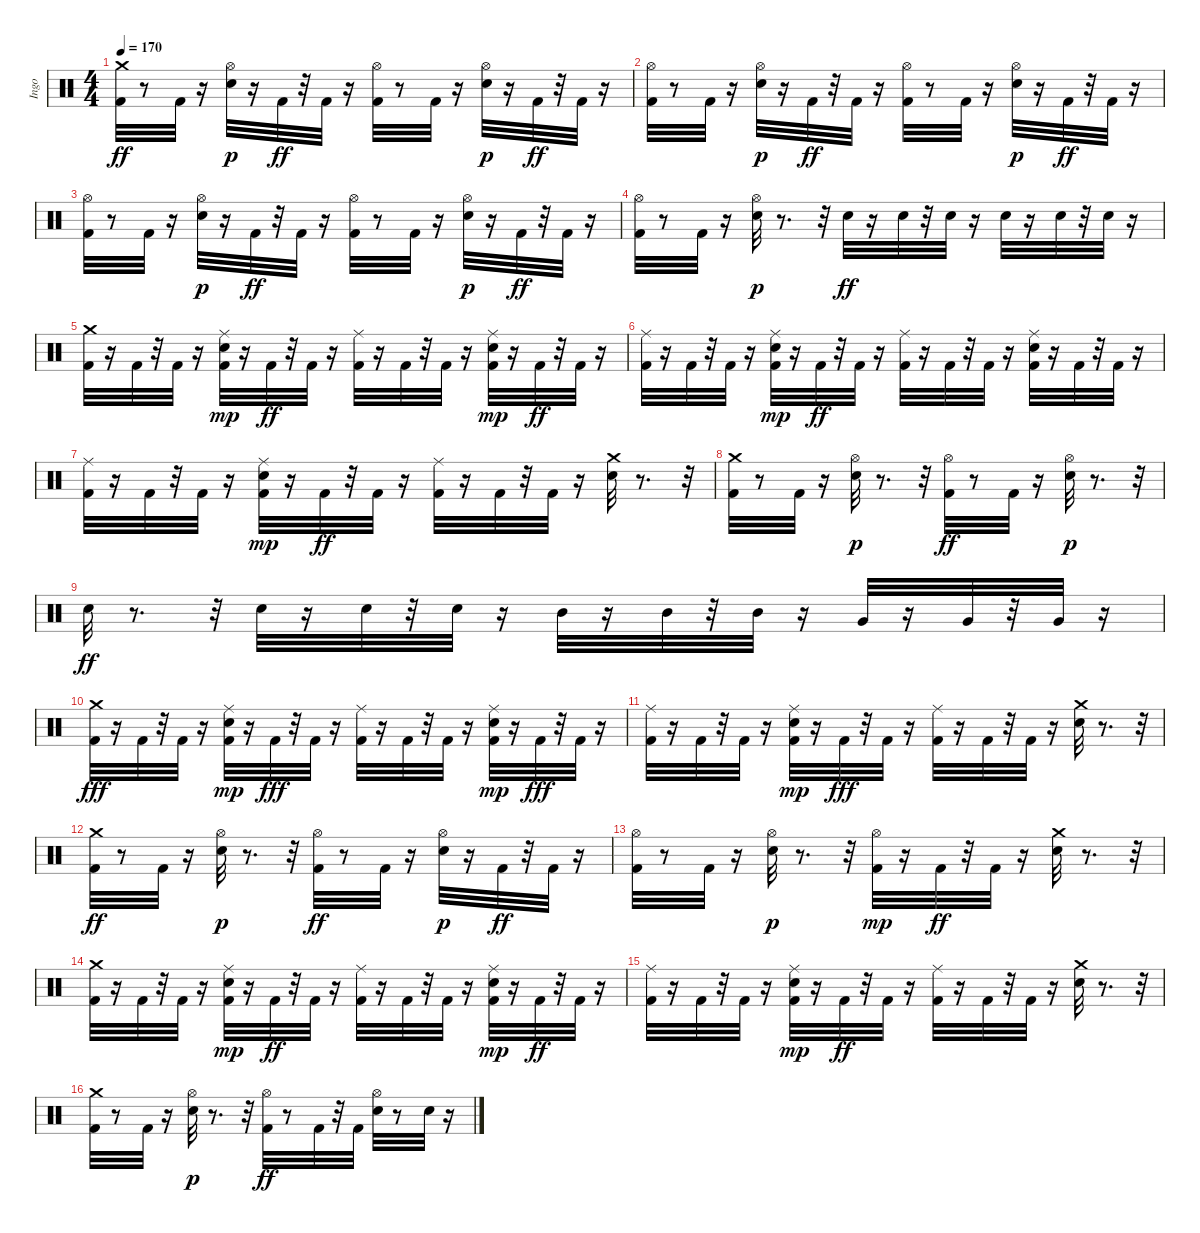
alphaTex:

\track ("Ingo" "Ingo") {instrument percussion}
\staff {score}
\articulation defaults
\ts (4 4)
\tempo 170
\clef neutral
\ks c
("Crash medium (hit)" "Kick (hit) 2").32{dy ff} r.8 "Kick (hit) 2".32 r.16 ("Snare (hit) 2" "Hi-Hat (open)").32{dy p} r.16 "Kick (hit) 2".32{dy ff} r.32 "Kick (hit) 2".32 r.16 ("Hi-Hat (open)" "Kick (hit) 2").32 r.8 "Kick (hit) 2".32 r.16 ("Snare (hit) 2" "Hi-Hat (open)").32{dy p} r.16 "Kick (hit) 2".32{dy ff} r.32 "Kick (hit) 2".32 r.16 |
("Hi-Hat (open)" "Kick (hit) 2").32 r.8 "Kick (hit) 2".32 r.16 ("Snare (hit) 2" "Hi-Hat (open)").32{dy p} r.16 "Kick (hit) 2".32{dy ff} r.32 "Kick (hit) 2".32 r.16 ("Hi-Hat (open)" "Kick (hit) 2").32 r.8 "Kick (hit) 2".32 r.16 ("Snare (hit) 2" "Hi-Hat (open)").32{dy p} r.16 "Kick (hit) 2".32{dy ff} r.32 "Kick (hit) 2".32 r.16 |
("Hi-Hat (open)" "Kick (hit) 2").32 r.8 "Kick (hit) 2".32 r.16 ("Snare (hit) 2" "Hi-Hat (open)").32{dy p} r.16 "Kick (hit) 2".32{dy ff} r.32 "Kick (hit) 2".32 r.16 ("Hi-Hat (open)" "Kick (hit) 2").32 r.8 "Kick (hit) 2".32 r.16 ("Snare (hit) 2" "Hi-Hat (open)").32{dy p} r.16 "Kick (hit) 2".32{dy ff} r.32 "Kick (hit) 2".32 r.16 |
("Hi-Hat (open)" "Kick (hit) 2").32 r.8 "Kick (hit) 2".32 r.16 ("Snare (hit) 2" "Hi-Hat (open)").32{dy p} r.8{d} r.32 "Snare (hit) 2".32{dy ff} r.16 "Snare (hit) 2".32 r.32 "Snare (hit) 2".32 r.16 "Snare (hit) 2".32 r.16 "Snare (hit) 2".32 r.32 "Snare (hit) 2".32 r.16 |
("Crash medium (hit)" "Kick (hit) 2").32 r.16 "Kick (hit) 2".32 r.32 "Kick (hit) 2".32 r.16 ("Kick (hit) 2" "Snare (hit) 2" "Ride (middle)").32{dy mp} r.16 "Kick (hit) 2".32{dy ff} r.32 "Kick (hit) 2".32 r.16 ("Ride (middle)" "Kick (hit) 2").32 r.16 "Kick (hit) 2".32 r.32 "Kick (hit) 2".32 r.16 ("Kick (hit) 2" "Snare (hit) 2" "Ride (middle)").32{dy mp} r.16 "Kick (hit) 2".32{dy ff} r.32 "Kick (hit) 2".32 r.16 |
("Ride (middle)" "Kick (hit) 2").32 r.16 "Kick (hit) 2".32 r.32 "Kick (hit) 2".32 r.16 ("Kick (hit) 2" "Snare (hit) 2" "Ride (middle)").32{dy mp} r.16 "Kick (hit) 2".32{dy ff} r.32 "Kick (hit) 2".32 r.16 ("Ride (middle)" "Kick (hit) 2").32 r.16 "Kick (hit) 2".32 r.32 "Kick (hit) 2".32 r.16 ("Ride (middle)" "Kick (hit) 2" "Snare (hit) 2").32 r.16 "Kick (hit) 2".32 r.32 "Kick (hit) 2".32 r.16 |
("Ride (middle)" "Kick (hit) 2").32 r.16 "Kick (hit) 2".32 r.32 "Kick (hit) 2".32 r.16 ("Kick (hit) 2" "Snare (hit) 2" "Ride (middle)").32{dy mp} r.16 "Kick (hit) 2".32{dy ff} r.32 "Kick (hit) 2".32 r.16 ("Ride (middle)" "Kick (hit) 2").32 r.16 "Kick (hit) 2".32 r.32 "Kick (hit) 2".32 r.16 ("Crash medium (hit)" "Snare (hit) 2").32 r.8{d} r.32 |
("Crash medium (hit)" "Kick (hit) 2").32 r.8 "Kick (hit) 2".32 r.16 ("Snare (hit) 2" "Hi-Hat (open)").32{dy p} r.8{d} r.32 ("Hi-Hat (open)" "Kick (hit) 2").32{dy ff} r.8 "Kick (hit) 2".32 r.16 ("Snare (hit) 2" "Hi-Hat (open)").32{dy p} r.8{d} r.32 |
"Snare (hit) 2".32{dy ff} r.8{d} r.32 "Snare (hit) 2".32 r.16 "Snare (hit) 2".32 r.32 "Snare (hit) 2".32 r.16 "Mid Tom (hit)".32 r.16 "Mid Tom (hit)".32 r.32 "Mid Tom (hit)".32 r.16 "Very Low Tom (hit)".32 r.16 "Very Low Tom (hit)".32 r.32 "Very Low Tom (hit)".32 r.16 |
("Crash medium (hit)" "Kick (hit) 2").32{dy fff} r.16 "Kick (hit) 2".32 r.32 "Kick (hit) 2".32 r.16 ("Kick (hit) 2" "Snare (hit) 2" "Ride (middle)").32{dy mp} r.16 "Kick (hit) 2".32{dy fff} r.32 "Kick (hit) 2".32 r.16 ("Ride (middle)" "Kick (hit) 2").32 r.16 "Kick (hit) 2".32 r.32 "Kick (hit) 2".32 r.16 ("Kick (hit) 2" "Snare (hit) 2" "Ride (middle)").32{dy mp} r.16 "Kick (hit) 2".32{dy fff} r.32 "Kick (hit) 2".32 r.16 |
("Ride (middle)" "Kick (hit) 2").32 r.16 "Kick (hit) 2".32 r.32 "Kick (hit) 2".32 r.16 ("Kick (hit) 2" "Snare (hit) 2" "Ride (middle)").32{dy mp} r.16 "Kick (hit) 2".32{dy fff} r.32 "Kick (hit) 2".32 r.16 ("Ride (middle)" "Kick (hit) 2").32 r.16 "Kick (hit) 2".32 r.32 "Kick (hit) 2".32 r.16 ("Crash medium (hit)" "Snare (hit) 2").32 r.8{d} r.32 |
("Crash medium (hit)" "Kick (hit) 2").32{dy ff} r.8 "Kick (hit) 2".32 r.16 ("Snare (hit) 2" "Hi-Hat (open)").32{dy p} r.8{d} r.32 ("Hi-Hat (open)" "Kick (hit) 2").32{dy ff} r.8 "Kick (hit) 2".32 r.16 ("Snare (hit) 2" "Hi-Hat (open)").32{dy p} r.16 "Kick (hit) 2".32{dy ff} r.32 "Kick (hit) 2".32 r.16 |
("Hi-Hat (open)" "Kick (hit) 2").32 r.8 "Kick (hit) 2".32 r.16 ("Snare (hit) 2" "Hi-Hat (open)").32{dy p} r.8{d} r.32 ("Kick (hit) 2" "Hi-Hat (open)").32{dy mp} r.16 "Kick (hit) 2".32{dy ff} r.32 "Kick (hit) 2".32 r.16 ("Crash medium (hit)" "Snare (hit) 2").32 r.8{d} r.32 |
("Crash medium (hit)" "Kick (hit) 2").32 r.16 "Kick (hit) 2".32 r.32 "Kick (hit) 2".32 r.16 ("Kick (hit) 2" "Snare (hit) 2" "Ride (middle)").32{dy mp} r.16 "Kick (hit) 2".32{dy ff} r.32 "Kick (hit) 2".32 r.16 ("Ride (middle)" "Kick (hit) 2").32 r.16 "Kick (hit) 2".32 r.32 "Kick (hit) 2".32 r.16 ("Kick (hit) 2" "Snare (hit) 2" "Ride (middle)").32{dy mp} r.16 "Kick (hit) 2".32{dy ff} r.32 "Kick (hit) 2".32 r.16 |
("Ride (middle)" "Kick (hit) 2").32 r.16 "Kick (hit) 2".32 r.32 "Kick (hit) 2".32 r.16 ("Kick (hit) 2" "Snare (hit) 2" "Ride (middle)").32{dy mp} r.16 "Kick (hit) 2".32{dy ff} r.32 "Kick (hit) 2".32 r.16 ("Ride (middle)" "Kick (hit) 2").32 r.16 "Kick (hit) 2".32 r.32 "Kick (hit) 2".32 r.16 ("Crash medium (hit)" "Snare (hit) 2").32 r.8{d} r.32 |
("Crash medium (hit)" "Kick (hit) 2").32 r.8 "Kick (hit) 2".32 r.16 ("Snare (hit) 2" "Hi-Hat (open)").32{dy p} r.8{d} r.32 ("Hi-Hat (open)" "Kick (hit) 2").32{dy ff} r.8 "Kick (hit) 2".32 r.32 "Kick (hit) 2".32 ("Hi-Hat (open)" "Snare (hit) 2").32 r.8 "Snare (hit) 2".32 r.16
